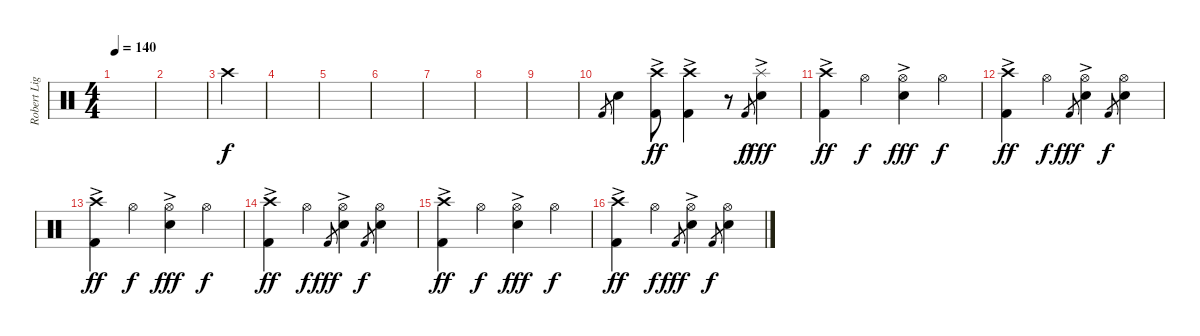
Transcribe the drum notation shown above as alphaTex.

\track ("Robert Ligiewicz (Perkusja)" "Robert Lig") {instrument percussion}
\staff {score}
\articulation defaults
\ts (4 4)
\tempo 140
\clef neutral
\ks c
|
|
"Crash high (hit)".4 |
|
|
|
|
|
|
"Kick (hit) 2".8{gr} "Electric Snare (hit)".4 ("Crash high (hit)" "Kick (hit) 2"{ac}).8{dy ff} ("Crash high (hit)" "Kick (hit) 2"{ac}).4 r.8 "Kick (hit) 2".8{gr dy f} ("Splash (hit)" "Electric Snare (hit)"{ac}).4{dy fff} |
("Crash high (hit)" "Kick (hit) 2"{ac}).4{dy ff} "Hi-Hat (open)".4{dy f} ("Hi-Hat (open)" "Electric Snare (hit)"{ac}).4{dy fff} "Hi-Hat (open)".4{dy f} |
("Crash high (hit)" "Kick (hit) 2"{ac}).4{dy ff} "Hi-Hat (open)".4{dy f} "Kick (hit) 2".8{gr dy fff} ("Hi-Hat (open)" "Electric Snare (hit)"{ac}).4 "Kick (hit) 2".8{gr dy f} ("Hi-Hat (open)" "Electric Snare (hit)").4 |
("Crash high (hit)" "Kick (hit) 2"{ac}).4{dy ff} "Hi-Hat (open)".4{dy f} ("Hi-Hat (open)" "Electric Snare (hit)"{ac}).4{dy fff} "Hi-Hat (open)".4{dy f} |
("Crash high (hit)" "Kick (hit) 2"{ac}).4{dy ff} "Hi-Hat (open)".4{dy f} "Kick (hit) 2".8{gr dy fff} ("Hi-Hat (open)" "Electric Snare (hit)"{ac}).4 "Kick (hit) 2".8{gr dy f} ("Hi-Hat (open)" "Electric Snare (hit)").4 |
("Crash high (hit)" "Kick (hit) 2"{ac}).4{dy ff} "Hi-Hat (open)".4{dy f} ("Hi-Hat (open)" "Electric Snare (hit)"{ac}).4{dy fff} "Hi-Hat (open)".4{dy f} |
("Crash high (hit)" "Kick (hit) 2"{ac}).4{dy ff} "Hi-Hat (open)".4{dy f} "Kick (hit) 2".8{gr dy fff} ("Hi-Hat (open)" "Electric Snare (hit)"{ac}).4 "Kick (hit) 2".8{gr dy f} ("Hi-Hat (open)" "Electric Snare (hit)").4
